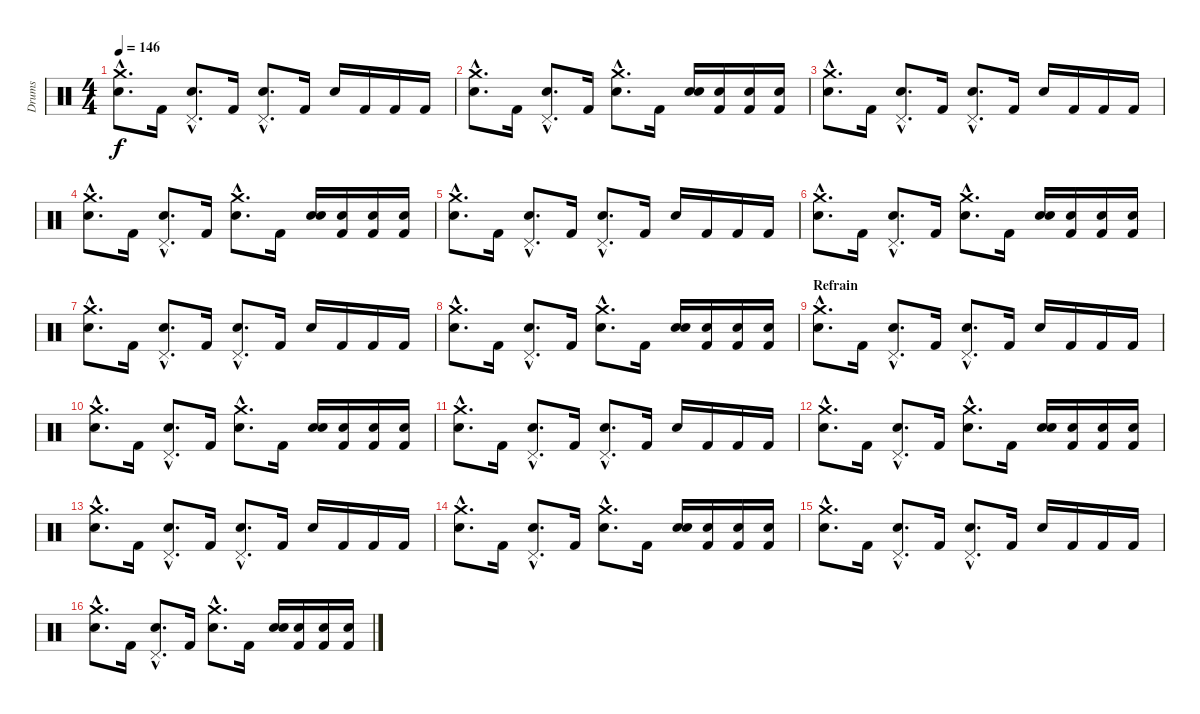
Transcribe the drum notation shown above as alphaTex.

\track ("Drums" "Drums") {instrument percussion}
\staff {score}
\articulation defaults
\ts (4 4)
\tempo 146
\clef neutral
\ks c
("Electric Snare (hit)"{hac} "Crash medium (hit)").8{d dy f} "Kick (hit) 2".16 ("Electric Snare (hit)"{hac} "Pedal Hi-Hat (hit)"{hac}).8{d} "Kick (hit) 2".16 ("Electric Snare (hit)"{hac} "Pedal Hi-Hat (hit)"{hac}).8{d} "Kick (hit) 2".16 "Electric Snare (hit)".16 "Kick (hit) 2".16 "Kick (hit) 2".16 "Kick (hit) 2".16 |
("Electric Snare (hit)"{hac} "Crash medium (hit)").8{d} "Kick (hit) 2".16 ("Electric Snare (hit)"{hac} "Pedal Hi-Hat (hit)"{hac}).8{d} "Kick (hit) 2".16 ("Electric Snare (hit)"{hac} "Crash medium (hit)"{hac}).8{d} "Kick (hit) 2".16 ("Electric Snare (hit)" "Snare (hit) 2").16 ("Kick (hit) 2" "Snare (hit) 2").16 ("Kick (hit) 2" "Snare (hit) 2").16 ("Kick (hit) 2" "Snare (hit) 2").16 |
("Electric Snare (hit)"{hac} "Crash medium (hit)").8{d} "Kick (hit) 2".16 ("Electric Snare (hit)"{hac} "Pedal Hi-Hat (hit)"{hac}).8{d} "Kick (hit) 2".16 ("Electric Snare (hit)"{hac} "Pedal Hi-Hat (hit)"{hac}).8{d} "Kick (hit) 2".16 "Electric Snare (hit)".16 "Kick (hit) 2".16 "Kick (hit) 2".16 "Kick (hit) 2".16 |
("Electric Snare (hit)"{hac} "Crash medium (hit)").8{d} "Kick (hit) 2".16 ("Electric Snare (hit)"{hac} "Pedal Hi-Hat (hit)"{hac}).8{d} "Kick (hit) 2".16 ("Electric Snare (hit)"{hac} "Crash medium (hit)"{hac}).8{d} "Kick (hit) 2".16 ("Electric Snare (hit)" "Snare (hit) 2").16 ("Kick (hit) 2" "Snare (hit) 2").16 ("Kick (hit) 2" "Snare (hit) 2").16 ("Kick (hit) 2" "Snare (hit) 2").16 |
("Electric Snare (hit)"{hac} "Crash medium (hit)").8{d} "Kick (hit) 2".16 ("Electric Snare (hit)"{hac} "Pedal Hi-Hat (hit)"{hac}).8{d} "Kick (hit) 2".16 ("Electric Snare (hit)"{hac} "Pedal Hi-Hat (hit)"{hac}).8{d} "Kick (hit) 2".16 "Electric Snare (hit)".16 "Kick (hit) 2".16 "Kick (hit) 2".16 "Kick (hit) 2".16 |
("Electric Snare (hit)"{hac} "Crash medium (hit)").8{d} "Kick (hit) 2".16 ("Electric Snare (hit)"{hac} "Pedal Hi-Hat (hit)"{hac}).8{d} "Kick (hit) 2".16 ("Electric Snare (hit)"{hac} "Crash medium (hit)"{hac}).8{d} "Kick (hit) 2".16 ("Electric Snare (hit)" "Snare (hit) 2").16 ("Kick (hit) 2" "Snare (hit) 2").16 ("Kick (hit) 2" "Snare (hit) 2").16 ("Kick (hit) 2" "Snare (hit) 2").16 |
("Electric Snare (hit)"{hac} "Crash medium (hit)").8{d} "Kick (hit) 2".16 ("Electric Snare (hit)"{hac} "Pedal Hi-Hat (hit)"{hac}).8{d} "Kick (hit) 2".16 ("Electric Snare (hit)"{hac} "Pedal Hi-Hat (hit)"{hac}).8{d} "Kick (hit) 2".16 "Electric Snare (hit)".16 "Kick (hit) 2".16 "Kick (hit) 2".16 "Kick (hit) 2".16 |
("Electric Snare (hit)"{hac} "Crash medium (hit)").8{d} "Kick (hit) 2".16 ("Electric Snare (hit)"{hac} "Pedal Hi-Hat (hit)"{hac}).8{d} "Kick (hit) 2".16 ("Electric Snare (hit)"{hac} "Crash medium (hit)"{hac}).8{d} "Kick (hit) 2".16 ("Electric Snare (hit)" "Snare (hit) 2").16 ("Kick (hit) 2" "Snare (hit) 2").16 ("Kick (hit) 2" "Snare (hit) 2").16 ("Kick (hit) 2" "Snare (hit) 2").16 |
\section ("" "Refrain")
("Electric Snare (hit)"{hac} "Crash medium (hit)").8{d} "Kick (hit) 2".16 ("Electric Snare (hit)"{hac} "Pedal Hi-Hat (hit)"{hac}).8{d} "Kick (hit) 2".16 ("Electric Snare (hit)"{hac} "Pedal Hi-Hat (hit)"{hac}).8{d} "Kick (hit) 2".16 "Electric Snare (hit)".16 "Kick (hit) 2".16 "Kick (hit) 2".16 "Kick (hit) 2".16 |
("Electric Snare (hit)"{hac} "Crash medium (hit)").8{d} "Kick (hit) 2".16 ("Electric Snare (hit)"{hac} "Pedal Hi-Hat (hit)"{hac}).8{d} "Kick (hit) 2".16 ("Electric Snare (hit)"{hac} "Crash medium (hit)"{hac}).8{d} "Kick (hit) 2".16 ("Electric Snare (hit)" "Snare (hit) 2").16 ("Kick (hit) 2" "Snare (hit) 2").16 ("Kick (hit) 2" "Snare (hit) 2").16 ("Kick (hit) 2" "Snare (hit) 2").16 |
("Electric Snare (hit)"{hac} "Crash medium (hit)").8{d} "Kick (hit) 2".16 ("Electric Snare (hit)"{hac} "Pedal Hi-Hat (hit)"{hac}).8{d} "Kick (hit) 2".16 ("Electric Snare (hit)"{hac} "Pedal Hi-Hat (hit)"{hac}).8{d} "Kick (hit) 2".16 "Electric Snare (hit)".16 "Kick (hit) 2".16 "Kick (hit) 2".16 "Kick (hit) 2".16 |
("Electric Snare (hit)"{hac} "Crash medium (hit)").8{d} "Kick (hit) 2".16 ("Electric Snare (hit)"{hac} "Pedal Hi-Hat (hit)"{hac}).8{d} "Kick (hit) 2".16 ("Electric Snare (hit)"{hac} "Crash medium (hit)"{hac}).8{d} "Kick (hit) 2".16 ("Electric Snare (hit)" "Snare (hit) 2").16 ("Kick (hit) 2" "Snare (hit) 2").16 ("Kick (hit) 2" "Snare (hit) 2").16 ("Kick (hit) 2" "Snare (hit) 2").16 |
("Electric Snare (hit)"{hac} "Crash medium (hit)").8{d} "Kick (hit) 2".16 ("Electric Snare (hit)"{hac} "Pedal Hi-Hat (hit)"{hac}).8{d} "Kick (hit) 2".16 ("Electric Snare (hit)"{hac} "Pedal Hi-Hat (hit)"{hac}).8{d} "Kick (hit) 2".16 "Electric Snare (hit)".16 "Kick (hit) 2".16 "Kick (hit) 2".16 "Kick (hit) 2".16 |
("Electric Snare (hit)"{hac} "Crash medium (hit)").8{d} "Kick (hit) 2".16 ("Electric Snare (hit)"{hac} "Pedal Hi-Hat (hit)"{hac}).8{d} "Kick (hit) 2".16 ("Electric Snare (hit)"{hac} "Crash medium (hit)"{hac}).8{d} "Kick (hit) 2".16 ("Electric Snare (hit)" "Snare (hit) 2").16 ("Kick (hit) 2" "Snare (hit) 2").16 ("Kick (hit) 2" "Snare (hit) 2").16 ("Kick (hit) 2" "Snare (hit) 2").16 |
("Electric Snare (hit)"{hac} "Crash medium (hit)").8{d} "Kick (hit) 2".16 ("Electric Snare (hit)"{hac} "Pedal Hi-Hat (hit)"{hac}).8{d} "Kick (hit) 2".16 ("Electric Snare (hit)"{hac} "Pedal Hi-Hat (hit)"{hac}).8{d} "Kick (hit) 2".16 "Electric Snare (hit)".16 "Kick (hit) 2".16 "Kick (hit) 2".16 "Kick (hit) 2".16 |
("Electric Snare (hit)"{hac} "Crash medium (hit)").8{d} "Kick (hit) 2".16 ("Electric Snare (hit)"{hac} "Pedal Hi-Hat (hit)"{hac}).8{d} "Kick (hit) 2".16 ("Electric Snare (hit)"{hac} "Crash medium (hit)"{hac}).8{d} "Kick (hit) 2".16 ("Electric Snare (hit)" "Snare (hit) 2").16 ("Kick (hit) 2" "Snare (hit) 2").16 ("Kick (hit) 2" "Snare (hit) 2").16 ("Kick (hit) 2" "Snare (hit) 2").16
